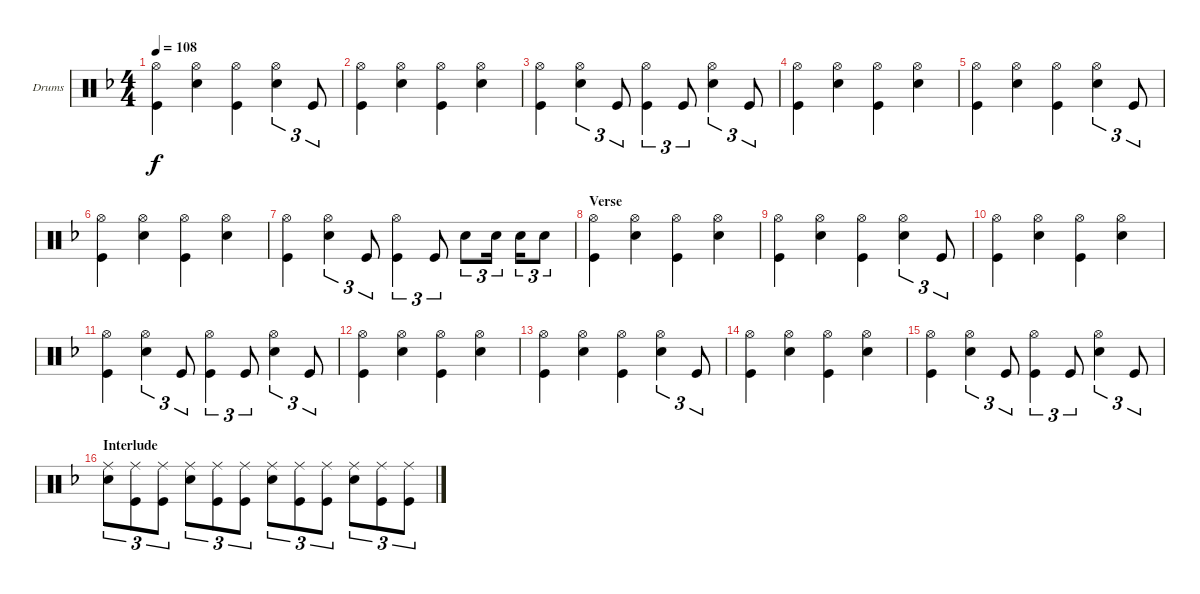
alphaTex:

\defaultSystemsLayout 4
\bracketExtendMode groupsimilarinstruments
\firstSystemTrackNameOrientation horizontal
\otherSystemsTrackNameOrientation horizontal
\track ("Drumkit" "Drums") {instrument percussion}
\staff {score}
\articulation defaults
\ts (4 4)
\tempo 108
\clef neutral
\ks dminor
("Hi-Hat (open)" "Kick (hit)").4{dy f} ("Snare (hit) 2" "Hi-Hat (open)").4 ("Hi-Hat (open)" "Kick (hit)").4 ("Snare (hit) 2" "Hi-Hat (open)").4{tu (3 2)} "Kick (hit)".8{tu (3 2)} |
("Hi-Hat (open)" "Kick (hit)").4 ("Snare (hit) 2" "Hi-Hat (open)").4 ("Hi-Hat (open)" "Kick (hit)").4 ("Snare (hit) 2" "Hi-Hat (open)").4 |
("Hi-Hat (open)" "Kick (hit)").4 ("Snare (hit) 2" "Hi-Hat (open)").4{tu (3 2)} "Kick (hit)".8{tu (3 2)} ("Hi-Hat (open)" "Kick (hit)").4{tu (3 2)} "Kick (hit)".8{tu (3 2)} ("Snare (hit) 2" "Hi-Hat (open)").4{tu (3 2)} "Kick (hit)".8{tu (3 2)} |
("Hi-Hat (open)" "Kick (hit)").4 ("Snare (hit) 2" "Hi-Hat (open)").4 ("Hi-Hat (open)" "Kick (hit)").4 ("Snare (hit) 2" "Hi-Hat (open)").4 |
("Hi-Hat (open)" "Kick (hit)").4 ("Snare (hit) 2" "Hi-Hat (open)").4 ("Hi-Hat (open)" "Kick (hit)").4 ("Snare (hit) 2" "Hi-Hat (open)").4{tu (3 2)} "Kick (hit)".8{tu (3 2)} |
("Hi-Hat (open)" "Kick (hit)").4 ("Snare (hit) 2" "Hi-Hat (open)").4 ("Hi-Hat (open)" "Kick (hit)").4 ("Snare (hit) 2" "Hi-Hat (open)").4 |
("Hi-Hat (open)" "Kick (hit)").4 ("Snare (hit) 2" "Hi-Hat (open)").4{tu (3 2)} "Kick (hit)".8{tu (3 2)} ("Hi-Hat (open)" "Kick (hit)").4{tu (3 2)} "Kick (hit)".8{tu (3 2)} "Snare (hit) 2".8{tu (3 2)} "Snare (hit) 2".16{tu (3 2)} "Snare (hit) 2".16{tu (3 2)} "Snare (hit) 2".8{tu (3 2)} |
\section ("" "Verse")
("Hi-Hat (open)" "Kick (hit)").4 ("Snare (hit) 2" "Hi-Hat (open)").4 ("Hi-Hat (open)" "Kick (hit)").4 ("Snare (hit) 2" "Hi-Hat (open)").4 |
("Hi-Hat (open)" "Kick (hit)").4 ("Snare (hit) 2" "Hi-Hat (open)").4 ("Hi-Hat (open)" "Kick (hit)").4 ("Snare (hit) 2" "Hi-Hat (open)").4{tu (3 2)} "Kick (hit)".8{tu (3 2)} |
("Hi-Hat (open)" "Kick (hit)").4 ("Snare (hit) 2" "Hi-Hat (open)").4 ("Hi-Hat (open)" "Kick (hit)").4 ("Snare (hit) 2" "Hi-Hat (open)").4 |
("Hi-Hat (open)" "Kick (hit)").4 ("Snare (hit) 2" "Hi-Hat (open)").4{tu (3 2)} "Kick (hit)".8{tu (3 2)} ("Hi-Hat (open)" "Kick (hit)").4{tu (3 2)} "Kick (hit)".8{tu (3 2)} ("Snare (hit) 2" "Hi-Hat (open)").4{tu (3 2)} "Kick (hit)".8{tu (3 2)} |
("Hi-Hat (open)" "Kick (hit)").4 ("Snare (hit) 2" "Hi-Hat (open)").4 ("Hi-Hat (open)" "Kick (hit)").4 ("Snare (hit) 2" "Hi-Hat (open)").4 |
("Hi-Hat (open)" "Kick (hit)").4 ("Snare (hit) 2" "Hi-Hat (open)").4 ("Hi-Hat (open)" "Kick (hit)").4 ("Snare (hit) 2" "Hi-Hat (open)").4{tu (3 2)} "Kick (hit)".8{tu (3 2)} |
("Hi-Hat (open)" "Kick (hit)").4 ("Snare (hit) 2" "Hi-Hat (open)").4 ("Hi-Hat (open)" "Kick (hit)").4 ("Snare (hit) 2" "Hi-Hat (open)").4 |
("Hi-Hat (open)" "Kick (hit)").4 ("Snare (hit) 2" "Hi-Hat (open)").4{tu (3 2)} "Kick (hit)".8{tu (3 2)} ("Hi-Hat (open)" "Kick (hit)").4{tu (3 2)} "Kick (hit)".8{tu (3 2)} ("Snare (hit) 2" "Hi-Hat (open)").4{tu (3 2)} "Kick (hit)".8{tu (3 2)} |
\section ("" "Interlude")
("Snare (hit) 2" "Ride (middle)").8{tu (3 2)} ("Kick (hit)" "Ride (middle)").8{tu (3 2)} ("Kick (hit)" "Ride (middle)").8{tu (3 2)} ("Snare (hit) 2" "Ride (middle)").8{tu (3 2)} ("Kick (hit)" "Ride (middle)").8{tu (3 2)} ("Kick (hit)" "Ride (middle)").8{tu (3 2)} ("Snare (hit) 2" "Ride (middle)").8{tu (3 2)} ("Kick (hit)" "Ride (middle)").8{tu (3 2)} ("Kick (hit)" "Ride (middle)").8{tu (3 2)} ("Snare (hit) 2" "Ride (middle)").8{tu (3 2)} ("Kick (hit)" "Ride (middle)").8{tu (3 2)} ("Kick (hit)" "Ride (middle)").8{tu (3 2)}
